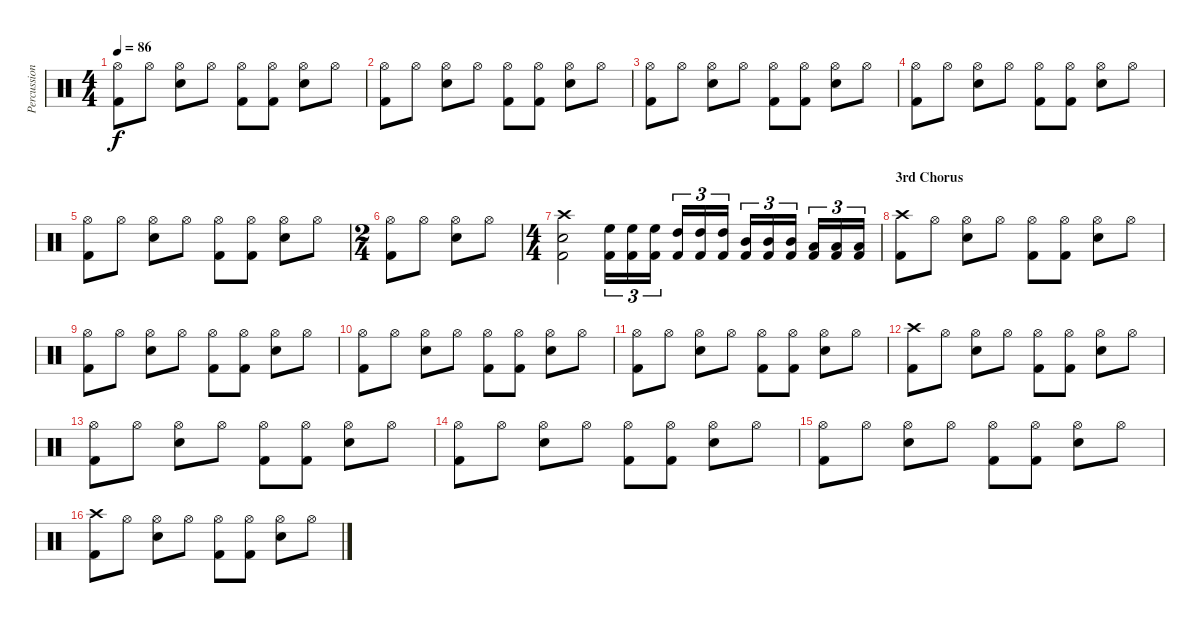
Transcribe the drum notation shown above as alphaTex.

\track ("Percussion" "Percussion") {instrument percussion}
\staff {score}
\articulation defaults
\ts (4 4)
\tempo 86
\clef neutral
\ks c
("Hi-Hat (open)" "Kick (hit) 2").8{dy f} "Hi-Hat (open)".8 ("Hi-Hat (open)" "Snare (hit) 2").8 "Hi-Hat (open)".8 ("Hi-Hat (open)" "Kick (hit) 2").8 ("Hi-Hat (open)" "Kick (hit) 2").8 ("Hi-Hat (open)" "Snare (hit) 2").8 "Hi-Hat (open)".8 |
("Hi-Hat (open)" "Kick (hit) 2").8 "Hi-Hat (open)".8 ("Hi-Hat (open)" "Snare (hit) 2").8 "Hi-Hat (open)".8 ("Hi-Hat (open)" "Kick (hit) 2").8 ("Hi-Hat (open)" "Kick (hit) 2").8 ("Hi-Hat (open)" "Snare (hit) 2").8 "Hi-Hat (open)".8 |
("Hi-Hat (open)" "Kick (hit) 2").8 "Hi-Hat (open)".8 ("Hi-Hat (open)" "Snare (hit) 2").8 "Hi-Hat (open)".8 ("Hi-Hat (open)" "Kick (hit) 2").8 ("Hi-Hat (open)" "Kick (hit) 2").8 ("Hi-Hat (open)" "Snare (hit) 2").8 "Hi-Hat (open)".8 |
("Hi-Hat (open)" "Kick (hit) 2").8 "Hi-Hat (open)".8 ("Hi-Hat (open)" "Snare (hit) 2").8 "Hi-Hat (open)".8 ("Hi-Hat (open)" "Kick (hit) 2").8 ("Hi-Hat (open)" "Kick (hit) 2").8 ("Hi-Hat (open)" "Snare (hit) 2").8 "Hi-Hat (open)".8 |
("Hi-Hat (open)" "Kick (hit) 2").8 "Hi-Hat (open)".8 ("Hi-Hat (open)" "Snare (hit) 2").8 "Hi-Hat (open)".8 ("Hi-Hat (open)" "Kick (hit) 2").8 ("Hi-Hat (open)" "Kick (hit) 2").8 ("Hi-Hat (open)" "Snare (hit) 2").8 "Hi-Hat (open)".8 |
\ts (2 4)
("Hi-Hat (open)" "Kick (hit) 2").8 "Hi-Hat (open)".8 ("Hi-Hat (open)" "Snare (hit) 2").8 "Hi-Hat (open)".8 |
\ts (4 4)
("Crash high (hit)" "Snare (hit) 2" "Kick (hit) 2").2 ("High Floor Tom (hit)" "Kick (hit) 2").16{tu (3 2)} ("High Floor Tom (hit)" "Kick (hit) 2").16{tu (3 2)} ("High Floor Tom (hit)" "Kick (hit) 2").16{tu (3 2)} ("High Tom (hit)" "Kick (hit) 2").16{tu (3 2)} ("High Tom (hit)" "Kick (hit) 2").16{tu (3 2)} ("High Tom (hit)" "Kick (hit) 2").16{tu (3 2)} ("Mid Tom (hit)" "Kick (hit) 2").16{tu (3 2)} ("Mid Tom (hit)" "Kick (hit) 2").16{tu (3 2)} ("Mid Tom (hit)" "Kick (hit) 2").16{tu (3 2)} ("Low Tom (hit)" "Kick (hit) 2").16{tu (3 2)} ("Low Tom (hit)" "Kick (hit) 2").16{tu (3 2)} ("Low Tom (hit)" "Kick (hit) 2").16{tu (3 2)} |
\section ("" "3rd Chorus")
("Crash high (hit)" "Kick (hit) 2").8 "Hi-Hat (open)".8 ("Hi-Hat (open)" "Snare (hit) 2").8 "Hi-Hat (open)".8 ("Hi-Hat (open)" "Kick (hit) 2").8 ("Hi-Hat (open)" "Kick (hit) 2").8 ("Hi-Hat (open)" "Snare (hit) 2").8 "Hi-Hat (open)".8 |
("Hi-Hat (open)" "Kick (hit) 2").8 "Hi-Hat (open)".8 ("Hi-Hat (open)" "Snare (hit) 2").8 "Hi-Hat (open)".8 ("Hi-Hat (open)" "Kick (hit) 2").8 ("Hi-Hat (open)" "Kick (hit) 2").8 ("Hi-Hat (open)" "Snare (hit) 2").8 "Hi-Hat (open)".8 |
("Hi-Hat (open)" "Kick (hit) 2").8 "Hi-Hat (open)".8 ("Hi-Hat (open)" "Snare (hit) 2").8 "Hi-Hat (open)".8 ("Hi-Hat (open)" "Kick (hit) 2").8 ("Hi-Hat (open)" "Kick (hit) 2").8 ("Hi-Hat (open)" "Snare (hit) 2").8 "Hi-Hat (open)".8 |
("Hi-Hat (open)" "Kick (hit) 2").8 "Hi-Hat (open)".8 ("Hi-Hat (open)" "Snare (hit) 2").8 "Hi-Hat (open)".8 ("Hi-Hat (open)" "Kick (hit) 2").8 ("Hi-Hat (open)" "Kick (hit) 2").8 ("Hi-Hat (open)" "Snare (hit) 2").8 "Hi-Hat (open)".8 |
("Crash high (hit)" "Kick (hit) 2").8 "Hi-Hat (open)".8 ("Hi-Hat (open)" "Snare (hit) 2").8 "Hi-Hat (open)".8 ("Hi-Hat (open)" "Kick (hit) 2").8 ("Hi-Hat (open)" "Kick (hit) 2").8 ("Hi-Hat (open)" "Snare (hit) 2").8 "Hi-Hat (open)".8 |
("Hi-Hat (open)" "Kick (hit) 2").8 "Hi-Hat (open)".8 ("Hi-Hat (open)" "Snare (hit) 2").8 "Hi-Hat (open)".8 ("Hi-Hat (open)" "Kick (hit) 2").8 ("Hi-Hat (open)" "Kick (hit) 2").8 ("Hi-Hat (open)" "Snare (hit) 2").8 "Hi-Hat (open)".8 |
("Hi-Hat (open)" "Kick (hit) 2").8 "Hi-Hat (open)".8 ("Hi-Hat (open)" "Snare (hit) 2").8 "Hi-Hat (open)".8 ("Hi-Hat (open)" "Kick (hit) 2").8 ("Hi-Hat (open)" "Kick (hit) 2").8 ("Hi-Hat (open)" "Snare (hit) 2").8 "Hi-Hat (open)".8 |
("Hi-Hat (open)" "Kick (hit) 2").8 "Hi-Hat (open)".8 ("Hi-Hat (open)" "Snare (hit) 2").8 "Hi-Hat (open)".8 ("Hi-Hat (open)" "Kick (hit) 2").8 ("Hi-Hat (open)" "Kick (hit) 2").8 ("Hi-Hat (open)" "Snare (hit) 2").8 "Hi-Hat (open)".8 |
("Crash high (hit)" "Kick (hit) 2").8 "Hi-Hat (open)".8 ("Hi-Hat (open)" "Snare (hit) 2").8 "Hi-Hat (open)".8 ("Hi-Hat (open)" "Kick (hit) 2").8 ("Hi-Hat (open)" "Kick (hit) 2").8 ("Hi-Hat (open)" "Snare (hit) 2").8 "Hi-Hat (open)".8
